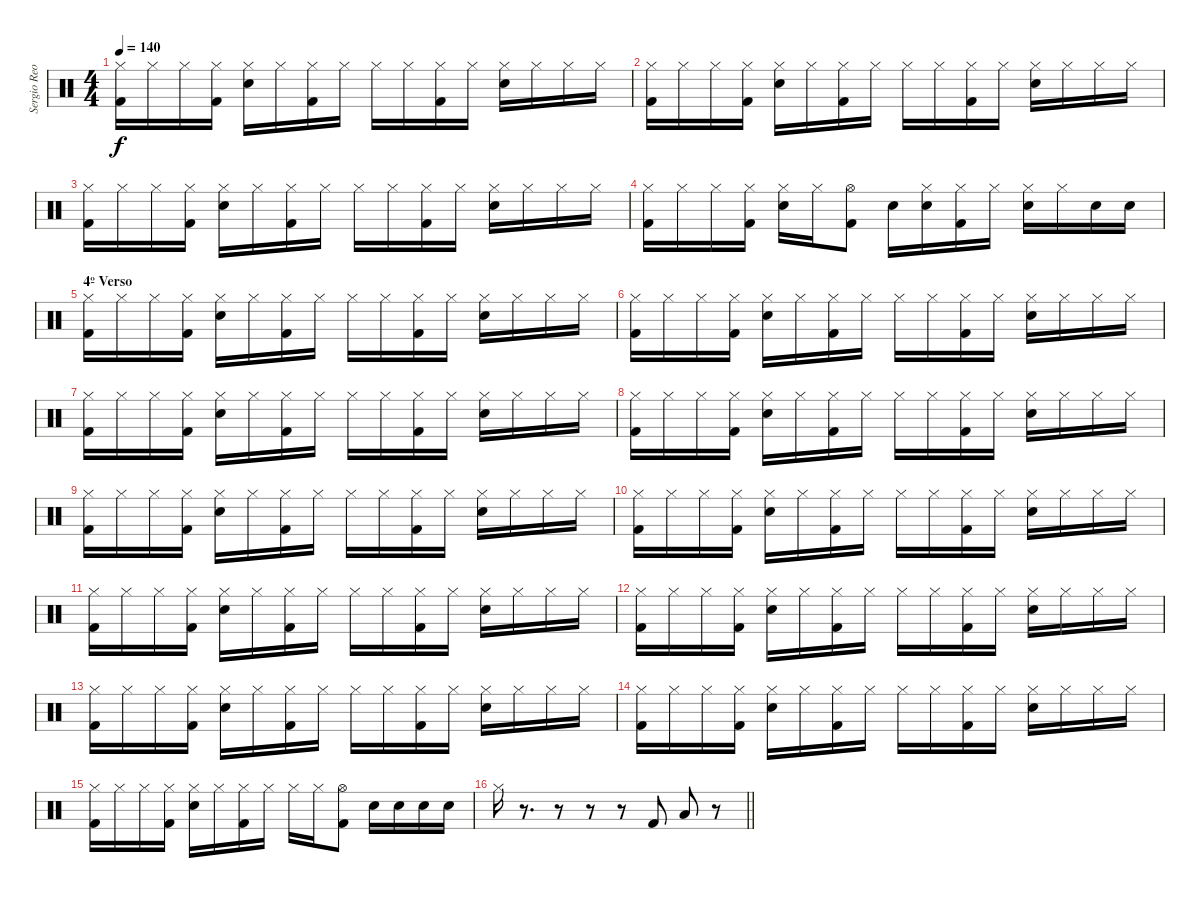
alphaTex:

\track ("Sergio Reoli" "Sergio Reo") {instrument percussion}
\staff {score}
\articulation defaults
\ts (4 4)
\tempo 140
\clef neutral
\ks c
("Hi-Hat (closed)" "Kick (hit) 2").16{dy f} "Hi-Hat (closed)".16 "Hi-Hat (closed)".16 ("Hi-Hat (closed)" "Kick (hit) 2").16 ("Hi-Hat (closed)" "Electric Snare (hit)").16 "Hi-Hat (closed)".16 ("Hi-Hat (closed)" "Kick (hit) 2").16 "Hi-Hat (closed)".16 "Hi-Hat (closed)".16 "Hi-Hat (closed)".16 ("Hi-Hat (closed)" "Kick (hit) 2").16 "Hi-Hat (closed)".16 ("Hi-Hat (closed)" "Electric Snare (hit)").16 "Hi-Hat (closed)".16 "Hi-Hat (closed)".16 "Hi-Hat (closed)".16 |
("Hi-Hat (closed)" "Kick (hit) 2").16 "Hi-Hat (closed)".16 "Hi-Hat (closed)".16 ("Hi-Hat (closed)" "Kick (hit) 2").16 ("Hi-Hat (closed)" "Electric Snare (hit)").16 "Hi-Hat (closed)".16 ("Hi-Hat (closed)" "Kick (hit) 2").16 "Hi-Hat (closed)".16 "Hi-Hat (closed)".16 "Hi-Hat (closed)".16 ("Hi-Hat (closed)" "Kick (hit) 2").16 "Hi-Hat (closed)".16 ("Hi-Hat (closed)" "Electric Snare (hit)").16 "Hi-Hat (closed)".16 "Hi-Hat (closed)".16 "Hi-Hat (closed)".16 |
("Hi-Hat (closed)" "Kick (hit) 2").16 "Hi-Hat (closed)".16 "Hi-Hat (closed)".16 ("Hi-Hat (closed)" "Kick (hit) 2").16 ("Hi-Hat (closed)" "Electric Snare (hit)").16 "Hi-Hat (closed)".16 ("Hi-Hat (closed)" "Kick (hit) 2").16 "Hi-Hat (closed)".16 "Hi-Hat (closed)".16 "Hi-Hat (closed)".16 ("Hi-Hat (closed)" "Kick (hit) 2").16 "Hi-Hat (closed)".16 ("Hi-Hat (closed)" "Electric Snare (hit)").16 "Hi-Hat (closed)".16 "Hi-Hat (closed)".16 "Hi-Hat (closed)".16 |
("Hi-Hat (closed)" "Kick (hit) 2").16 "Hi-Hat (closed)".16 "Hi-Hat (closed)".16 ("Hi-Hat (closed)" "Kick (hit) 2").16 ("Hi-Hat (closed)" "Electric Snare (hit)").16 "Hi-Hat (closed)".16 ("Hi-Hat (open)" "Kick (hit) 2").8 "Electric Snare (hit)".16 ("Hi-Hat (closed)" "Electric Snare (hit)").16 ("Hi-Hat (closed)" "Kick (hit) 2").16 "Hi-Hat (closed)".16 ("Hi-Hat (closed)" "Electric Snare (hit)").16 "Hi-Hat (closed)".16 "Electric Snare (hit)".16 "Electric Snare (hit)".16 |
\section ("" "4º Verso")
("Hi-Hat (closed)" "Kick (hit) 2").16 "Hi-Hat (closed)".16 "Hi-Hat (closed)".16 ("Hi-Hat (closed)" "Kick (hit) 2").16 ("Hi-Hat (closed)" "Electric Snare (hit)").16 "Hi-Hat (closed)".16 ("Hi-Hat (closed)" "Kick (hit) 2").16 "Hi-Hat (closed)".16 "Hi-Hat (closed)".16 "Hi-Hat (closed)".16 ("Hi-Hat (closed)" "Kick (hit) 2").16 "Hi-Hat (closed)".16 ("Hi-Hat (closed)" "Electric Snare (hit)").16 "Hi-Hat (closed)".16 "Hi-Hat (closed)".16 "Hi-Hat (closed)".16 |
("Hi-Hat (closed)" "Kick (hit) 2").16 "Hi-Hat (closed)".16 "Hi-Hat (closed)".16 ("Hi-Hat (closed)" "Kick (hit) 2").16 ("Hi-Hat (closed)" "Electric Snare (hit)").16 "Hi-Hat (closed)".16 ("Hi-Hat (closed)" "Kick (hit) 2").16 "Hi-Hat (closed)".16 "Hi-Hat (closed)".16 "Hi-Hat (closed)".16 ("Hi-Hat (closed)" "Kick (hit) 2").16 "Hi-Hat (closed)".16 ("Hi-Hat (closed)" "Electric Snare (hit)").16 "Hi-Hat (closed)".16 "Hi-Hat (closed)".16 "Hi-Hat (closed)".16 |
("Hi-Hat (closed)" "Kick (hit) 2").16 "Hi-Hat (closed)".16 "Hi-Hat (closed)".16 ("Hi-Hat (closed)" "Kick (hit) 2").16 ("Hi-Hat (closed)" "Electric Snare (hit)").16 "Hi-Hat (closed)".16 ("Hi-Hat (closed)" "Kick (hit) 2").16 "Hi-Hat (closed)".16 "Hi-Hat (closed)".16 "Hi-Hat (closed)".16 ("Hi-Hat (closed)" "Kick (hit) 2").16 "Hi-Hat (closed)".16 ("Hi-Hat (closed)" "Electric Snare (hit)").16 "Hi-Hat (closed)".16 "Hi-Hat (closed)".16 "Hi-Hat (closed)".16 |
("Hi-Hat (closed)" "Kick (hit) 2").16 "Hi-Hat (closed)".16 "Hi-Hat (closed)".16 ("Hi-Hat (closed)" "Kick (hit) 2").16 ("Hi-Hat (closed)" "Electric Snare (hit)").16 "Hi-Hat (closed)".16 ("Hi-Hat (closed)" "Kick (hit) 2").16 "Hi-Hat (closed)".16 "Hi-Hat (closed)".16 "Hi-Hat (closed)".16 ("Hi-Hat (closed)" "Kick (hit) 2").16 "Hi-Hat (closed)".16 ("Hi-Hat (closed)" "Electric Snare (hit)").16 "Hi-Hat (closed)".16 "Hi-Hat (closed)".16 "Hi-Hat (closed)".16 |
("Hi-Hat (closed)" "Kick (hit) 2").16 "Hi-Hat (closed)".16 "Hi-Hat (closed)".16 ("Hi-Hat (closed)" "Kick (hit) 2").16 ("Hi-Hat (closed)" "Electric Snare (hit)").16 "Hi-Hat (closed)".16 ("Hi-Hat (closed)" "Kick (hit) 2").16 "Hi-Hat (closed)".16 "Hi-Hat (closed)".16 "Hi-Hat (closed)".16 ("Hi-Hat (closed)" "Kick (hit) 2").16 "Hi-Hat (closed)".16 ("Hi-Hat (closed)" "Electric Snare (hit)").16 "Hi-Hat (closed)".16 "Hi-Hat (closed)".16 "Hi-Hat (closed)".16 |
("Hi-Hat (closed)" "Kick (hit) 2").16 "Hi-Hat (closed)".16 "Hi-Hat (closed)".16 ("Hi-Hat (closed)" "Kick (hit) 2").16 ("Hi-Hat (closed)" "Electric Snare (hit)").16 "Hi-Hat (closed)".16 ("Hi-Hat (closed)" "Kick (hit) 2").16 "Hi-Hat (closed)".16 "Hi-Hat (closed)".16 "Hi-Hat (closed)".16 ("Hi-Hat (closed)" "Kick (hit) 2").16 "Hi-Hat (closed)".16 ("Hi-Hat (closed)" "Electric Snare (hit)").16 "Hi-Hat (closed)".16 "Hi-Hat (closed)".16 "Hi-Hat (closed)".16 |
("Hi-Hat (closed)" "Kick (hit) 2").16 "Hi-Hat (closed)".16 "Hi-Hat (closed)".16 ("Hi-Hat (closed)" "Kick (hit) 2").16 ("Hi-Hat (closed)" "Electric Snare (hit)").16 "Hi-Hat (closed)".16 ("Hi-Hat (closed)" "Kick (hit) 2").16 "Hi-Hat (closed)".16 "Hi-Hat (closed)".16 "Hi-Hat (closed)".16 ("Hi-Hat (closed)" "Kick (hit) 2").16 "Hi-Hat (closed)".16 ("Hi-Hat (closed)" "Electric Snare (hit)").16 "Hi-Hat (closed)".16 "Hi-Hat (closed)".16 "Hi-Hat (closed)".16 |
("Hi-Hat (closed)" "Kick (hit) 2").16 "Hi-Hat (closed)".16 "Hi-Hat (closed)".16 ("Hi-Hat (closed)" "Kick (hit) 2").16 ("Hi-Hat (closed)" "Electric Snare (hit)").16 "Hi-Hat (closed)".16 ("Hi-Hat (closed)" "Kick (hit) 2").16 "Hi-Hat (closed)".16 "Hi-Hat (closed)".16 "Hi-Hat (closed)".16 ("Hi-Hat (closed)" "Kick (hit) 2").16 "Hi-Hat (closed)".16 ("Hi-Hat (closed)" "Electric Snare (hit)").16 "Hi-Hat (closed)".16 "Hi-Hat (closed)".16 "Hi-Hat (closed)".16 |
("Hi-Hat (closed)" "Kick (hit) 2").16 "Hi-Hat (closed)".16 "Hi-Hat (closed)".16 ("Hi-Hat (closed)" "Kick (hit) 2").16 ("Hi-Hat (closed)" "Electric Snare (hit)").16 "Hi-Hat (closed)".16 ("Hi-Hat (closed)" "Kick (hit) 2").16 "Hi-Hat (closed)".16 "Hi-Hat (closed)".16 "Hi-Hat (closed)".16 ("Hi-Hat (closed)" "Kick (hit) 2").16 "Hi-Hat (closed)".16 ("Hi-Hat (closed)" "Electric Snare (hit)").16 "Hi-Hat (closed)".16 "Hi-Hat (closed)".16 "Hi-Hat (closed)".16 |
("Hi-Hat (closed)" "Kick (hit) 2").16 "Hi-Hat (closed)".16 "Hi-Hat (closed)".16 ("Hi-Hat (closed)" "Kick (hit) 2").16 ("Hi-Hat (closed)" "Electric Snare (hit)").16 "Hi-Hat (closed)".16 ("Hi-Hat (closed)" "Kick (hit) 2").16 "Hi-Hat (closed)".16 "Hi-Hat (closed)".16 "Hi-Hat (closed)".16 ("Hi-Hat (closed)" "Kick (hit) 2").16 "Hi-Hat (closed)".16 ("Hi-Hat (closed)" "Electric Snare (hit)").16 "Hi-Hat (closed)".16 "Hi-Hat (closed)".16 "Hi-Hat (closed)".16 |
("Hi-Hat (closed)" "Kick (hit) 2").16 "Hi-Hat (closed)".16 "Hi-Hat (closed)".16 ("Hi-Hat (closed)" "Kick (hit) 2").16 ("Hi-Hat (closed)" "Electric Snare (hit)").16 "Hi-Hat (closed)".16 ("Hi-Hat (closed)" "Kick (hit) 2").16 "Hi-Hat (closed)".16 "Hi-Hat (closed)".16 "Hi-Hat (closed)".16 ("Hi-Hat (open)" "Kick (hit) 2").8 "Electric Snare (hit)".16 "Electric Snare (hit)".16 "Electric Snare (hit)".16 "Electric Snare (hit)".16 |
\barLineRight lightlight "Hi-Hat (closed)".16
r.8{d} r.8 r.8 r.8 "Kick (hit) 2".8 "Low Tom (hit)".8 r.8
